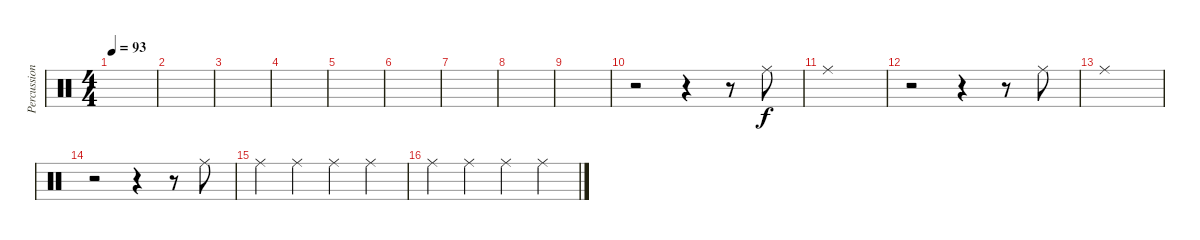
\track ("Percussion" "Percussion") {instrument percussion}
\staff {score}
\articulation defaults
\ts (4 4)
\tempo 93
\clef neutral
\ks c
|
|
|
|
|
|
|
|
|
r.2 r.4 r.8 "Ride (middle)".8 |
"Ride (middle)".1 |
r.2 r.4 r.8 "Ride (middle)".8 |
"Ride (middle)".1 |
r.2 r.4 r.8 "Ride (middle)".8 |
"Ride (middle)".4 "Ride (middle)".4 "Ride (middle)".4 "Ride (middle)".4 |
"Ride (middle)".4 "Ride (middle)".4 "Ride (middle)".4 "Ride (middle)".4
